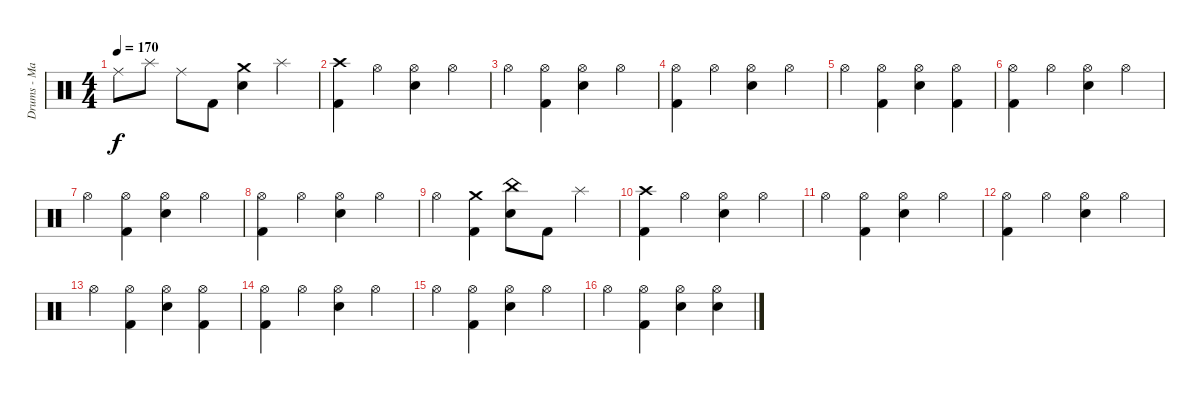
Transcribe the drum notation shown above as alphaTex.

\track ("Drums - Mario Duplantier" "Drums - Ma") {instrument percussion}
\staff {score}
\articulation defaults
\ts (4 4)
\tempo 170
\clef neutral
\ks c "Ride (middle)".8{dy f} "Splash (hit)".8 "Ride (middle)".8 "Kick (hit) 2".8
("Crash medium (hit)" "Snare (hit) 2").4 "Splash (hit)".4 |
("Crash high (hit)" "Kick (hit) 2").4 "Hi-Hat (open)".4 ("Hi-Hat (open)" "Snare (hit) 2").4 "Hi-Hat (open)".4 |
"Hi-Hat (open)".4 ("Hi-Hat (open)" "Kick (hit) 2").4 ("Hi-Hat (open)" "Snare (hit) 2").4 "Hi-Hat (open)".4 |
("Hi-Hat (open)" "Kick (hit) 2").4 "Hi-Hat (open)".4 ("Hi-Hat (open)" "Snare (hit) 2").4 "Hi-Hat (open)".4 |
"Hi-Hat (open)".4 ("Hi-Hat (open)" "Kick (hit) 2").4 ("Hi-Hat (open)" "Snare (hit) 2").4 ("Hi-Hat (open)" "Kick (hit) 2").4 |
("Hi-Hat (open)" "Kick (hit) 2").4 "Hi-Hat (open)".4 ("Hi-Hat (open)" "Snare (hit) 2").4 "Hi-Hat (open)".4 |
"Hi-Hat (open)".4 ("Hi-Hat (open)" "Kick (hit) 2").4 ("Hi-Hat (open)" "Snare (hit) 2").4 "Hi-Hat (open)".4 |
("Hi-Hat (open)" "Kick (hit) 2").4 "Hi-Hat (open)".4 ("Hi-Hat (open)" "Snare (hit) 2").4 "Hi-Hat (open)".4 |
"Hi-Hat (open)".4 ("Crash medium (hit)" "Kick (hit) 2").4 ("China (hit)" "Snare (hit) 2").8 "Kick (hit) 2".8 "Splash (hit)".4 |
("Crash high (hit)" "Kick (hit) 2").4 "Hi-Hat (open)".4 ("Hi-Hat (open)" "Snare (hit) 2").4 "Hi-Hat (open)".4 |
"Hi-Hat (open)".4 ("Hi-Hat (open)" "Kick (hit) 2").4 ("Hi-Hat (open)" "Snare (hit) 2").4 "Hi-Hat (open)".4 |
("Hi-Hat (open)" "Kick (hit) 2").4 "Hi-Hat (open)".4 ("Hi-Hat (open)" "Snare (hit) 2").4 "Hi-Hat (open)".4 |
"Hi-Hat (open)".4 ("Hi-Hat (open)" "Kick (hit) 2").4 ("Hi-Hat (open)" "Snare (hit) 2").4 ("Hi-Hat (open)" "Kick (hit) 2").4 |
("Hi-Hat (open)" "Kick (hit) 2").4 "Hi-Hat (open)".4 ("Hi-Hat (open)" "Snare (hit) 2").4 "Hi-Hat (open)".4 |
"Hi-Hat (open)".4 ("Hi-Hat (open)" "Kick (hit) 2").4 ("Hi-Hat (open)" "Snare (hit) 2").4 "Hi-Hat (open)".4 |
"Hi-Hat (open)".4 ("Hi-Hat (open)" "Kick (hit) 2").4 ("Hi-Hat (open)" "Snare (hit) 2").4 ("Hi-Hat (open)" "Snare (hit) 2").4
